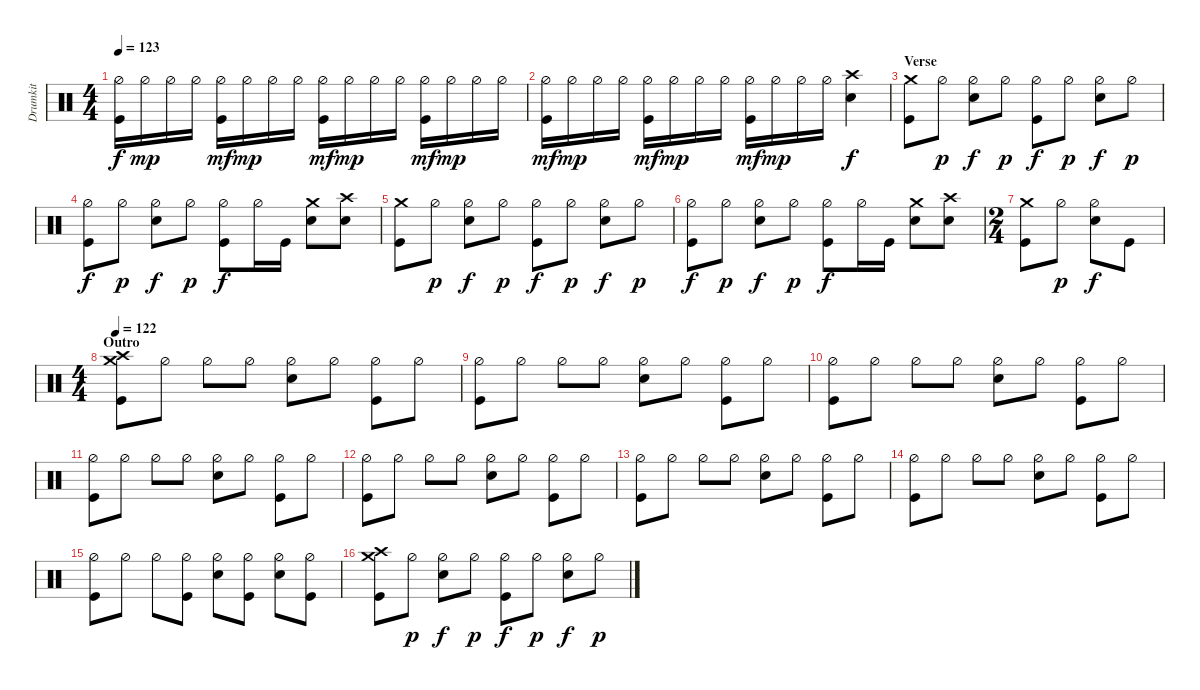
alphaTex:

\track ("Drumkit" "Drumkit") {instrument percussion}
\staff {score}
\articulation defaults
\ts (4 4)
\tempo 123
\clef neutral
\ks c
("Kick (hit)" "Hi-Hat (half)").16{dy f} "Hi-Hat (half)".16{dy mp} "Hi-Hat (half)".16 "Hi-Hat (half)".16 ("Hi-Hat (half)" "Kick (hit)").16{dy mf} "Hi-Hat (half)".16{dy mp} "Hi-Hat (half)".16 "Hi-Hat (half)".16 ("Hi-Hat (half)" "Kick (hit)").16{dy mf} "Hi-Hat (half)".16{dy mp} "Hi-Hat (half)".16 "Hi-Hat (half)".16 ("Hi-Hat (half)" "Kick (hit)").16{dy mf} "Hi-Hat (half)".16{dy mp} "Hi-Hat (half)".16 "Hi-Hat (half)".16 |
("Kick (hit)" "Hi-Hat (half)").16{dy mf} "Hi-Hat (half)".16{dy mp} "Hi-Hat (half)".16 "Hi-Hat (half)".16 ("Hi-Hat (half)" "Kick (hit)").16{dy mf} "Hi-Hat (half)".16{dy mp} "Hi-Hat (half)".16 "Hi-Hat (half)".16 ("Hi-Hat (half)" "Kick (hit)").16{dy mf} "Hi-Hat (half)".16{dy mp} "Hi-Hat (half)".16 "Hi-Hat (half)".16 ("Snare (hit) 2" "Crash high (hit)").4{dy f} |
\section ("" "Verse")
("Kick (hit)" "Crash medium (hit)").8 "Hi-Hat (half)".8{dy p} ("Hi-Hat (half)" "Snare (hit) 2").8{dy f} "Hi-Hat (half)".8{dy p} ("Hi-Hat (half)" "Kick (hit)").8{dy f} "Hi-Hat (half)".8{dy p} ("Hi-Hat (half)" "Snare (hit) 2").8{dy f} "Hi-Hat (half)".8{dy p} |
("Hi-Hat (half)" "Kick (hit)").8{dy f} "Hi-Hat (half)".8{dy p} ("Hi-Hat (half)" "Snare (hit) 2").8{dy f} "Hi-Hat (half)".8{dy p} ("Hi-Hat (half)" "Kick (hit)").8{dy f} "Hi-Hat (half)".16 "Kick (hit)".16 ("Snare (hit) 2" "Crash medium (hit)").8 ("Snare (hit) 2" "Crash high (hit)").8 |
("Kick (hit)" "Crash medium (hit)").8 "Hi-Hat (half)".8{dy p} ("Hi-Hat (half)" "Snare (hit) 2").8{dy f} "Hi-Hat (half)".8{dy p} ("Hi-Hat (half)" "Kick (hit)").8{dy f} "Hi-Hat (half)".8{dy p} ("Hi-Hat (half)" "Snare (hit) 2").8{dy f} "Hi-Hat (half)".8{dy p} |
("Hi-Hat (half)" "Kick (hit)").8{dy f} "Hi-Hat (half)".8{dy p} ("Hi-Hat (half)" "Snare (hit) 2").8{dy f} "Hi-Hat (half)".8{dy p} ("Hi-Hat (half)" "Kick (hit)").8{dy f} "Hi-Hat (half)".16 "Kick (hit)".16 ("Snare (hit) 2" "Crash medium (hit)").8 ("Snare (hit) 2" "Crash high (hit)").8 |
\ts (2 4)
("Kick (hit)" "Crash medium (hit)").8 "Hi-Hat (half)".8{dy p} ("Hi-Hat (half)" "Snare (hit) 2").8{dy f} "Kick (hit)".8 |
\ts (4 4)
\section ("" "Outro")
\tempo 122
("Kick (hit)" "Crash medium (hit)" "Crash high (hit)").8 "Hi-Hat (half)".8 "Hi-Hat (half)".8 "Hi-Hat (half)".8 ("Hi-Hat (half)" "Snare (hit) 2").8 "Hi-Hat (half)".8 ("Hi-Hat (half)" "Kick (hit)").8 "Hi-Hat (half)".8 |
("Kick (hit)" "Hi-Hat (half)").8 "Hi-Hat (half)".8 "Hi-Hat (half)".8 "Hi-Hat (half)".8 ("Hi-Hat (half)" "Snare (hit) 2").8 "Hi-Hat (half)".8 ("Hi-Hat (half)" "Kick (hit)").8 "Hi-Hat (half)".8 |
("Kick (hit)" "Hi-Hat (half)").8 "Hi-Hat (half)".8 "Hi-Hat (half)".8 "Hi-Hat (half)".8 ("Hi-Hat (half)" "Snare (hit) 2").8 "Hi-Hat (half)".8 ("Hi-Hat (half)" "Kick (hit)").8 "Hi-Hat (half)".8 |
("Kick (hit)" "Hi-Hat (half)").8 "Hi-Hat (half)".8 "Hi-Hat (half)".8 "Hi-Hat (half)".8 ("Hi-Hat (half)" "Snare (hit) 2").8 "Hi-Hat (half)".8 ("Hi-Hat (half)" "Kick (hit)").8 "Hi-Hat (half)".8 |
("Kick (hit)" "Hi-Hat (half)").8 "Hi-Hat (half)".8 "Hi-Hat (half)".8 "Hi-Hat (half)".8 ("Hi-Hat (half)" "Snare (hit) 2").8 "Hi-Hat (half)".8 ("Hi-Hat (half)" "Kick (hit)").8 "Hi-Hat (half)".8 |
("Kick (hit)" "Hi-Hat (half)").8 "Hi-Hat (half)".8 "Hi-Hat (half)".8 "Hi-Hat (half)".8 ("Hi-Hat (half)" "Snare (hit) 2").8 "Hi-Hat (half)".8 ("Hi-Hat (half)" "Kick (hit)").8 "Hi-Hat (half)".8 |
("Kick (hit)" "Hi-Hat (half)").8 "Hi-Hat (half)".8 "Hi-Hat (half)".8 "Hi-Hat (half)".8 ("Hi-Hat (half)" "Snare (hit) 2").8 "Hi-Hat (half)".8 ("Hi-Hat (half)" "Kick (hit)").8 "Hi-Hat (half)".8 |
("Kick (hit)" "Hi-Hat (half)").8 "Hi-Hat (half)".8 "Hi-Hat (half)".8 ("Hi-Hat (half)" "Kick (hit)").8 ("Hi-Hat (half)" "Snare (hit) 2").8 ("Hi-Hat (half)" "Kick (hit)").8 ("Hi-Hat (half)" "Snare (hit) 2").8 ("Hi-Hat (half)" "Kick (hit)").8 |
("Kick (hit)" "Crash medium (hit)" "Crash high (hit)").8 "Hi-Hat (half)".8{dy p} ("Hi-Hat (half)" "Snare (hit) 2").8{dy f} "Hi-Hat (half)".8{dy p} ("Hi-Hat (half)" "Kick (hit)").8{dy f} "Hi-Hat (half)".8{dy p} ("Hi-Hat (half)" "Snare (hit) 2").8{dy f} "Hi-Hat (half)".8{dy p}
